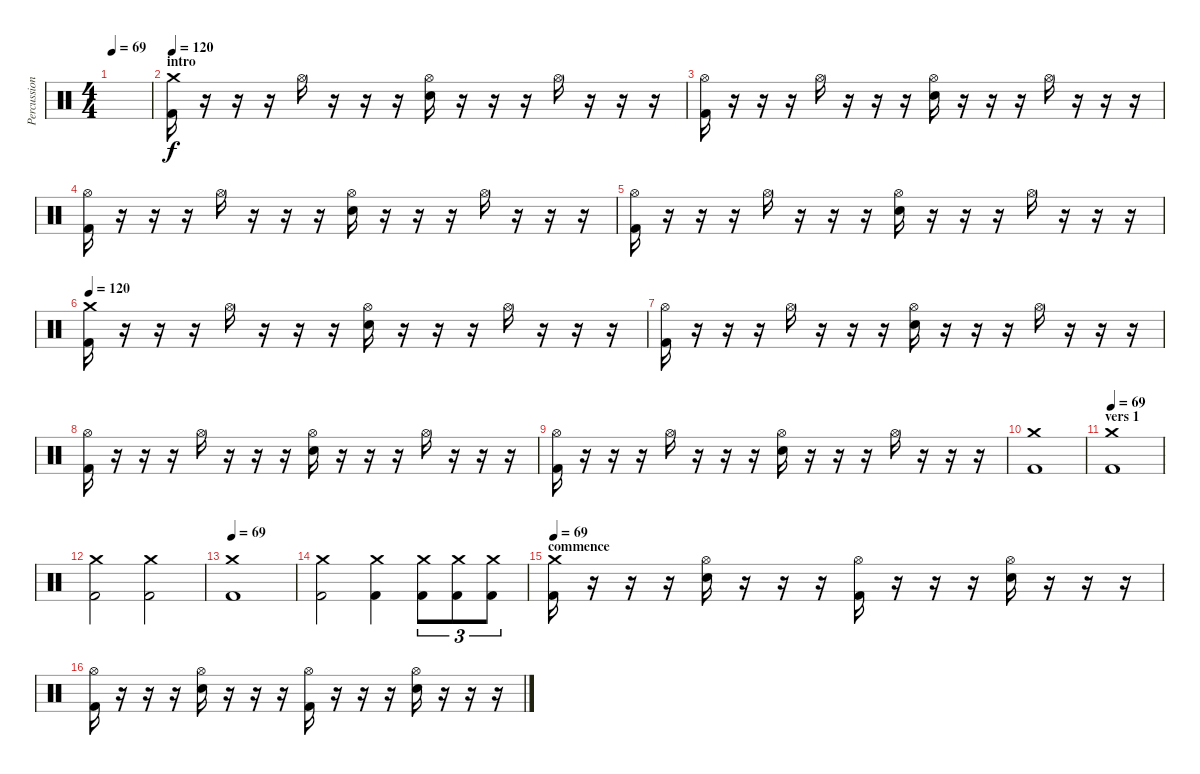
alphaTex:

\track ("Percussions" "Percussion") {instrument percussion}
\staff {score}
\articulation defaults
\ts (4 4)
\tempo 69
\clef neutral
\ks c
|
\section ("" "intro")
\tempo 120
("Crash medium (hit)" "Kick (hit) 2").16 r.16 r.16 r.16 "Hi-Hat (open)".16 r.16 r.16 r.16 ("Hi-Hat (open)" "Electric Snare (hit)").16 r.16 r.16 r.16 "Hi-Hat (open)".16 r.16 r.16 r.16 |
("Hi-Hat (open)" "Kick (hit) 2").16 r.16 r.16 r.16 "Hi-Hat (open)".16 r.16 r.16 r.16 ("Hi-Hat (open)" "Electric Snare (hit)").16 r.16 r.16 r.16 "Hi-Hat (open)".16 r.16 r.16 r.16 |
("Hi-Hat (open)" "Kick (hit) 2").16 r.16 r.16 r.16 "Hi-Hat (open)".16 r.16 r.16 r.16 ("Hi-Hat (open)" "Electric Snare (hit)").16 r.16 r.16 r.16 "Hi-Hat (open)".16 r.16 r.16 r.16 |
("Hi-Hat (open)" "Kick (hit) 2").16 r.16 r.16 r.16 "Hi-Hat (open)".16 r.16 r.16 r.16 ("Hi-Hat (open)" "Electric Snare (hit)").16 r.16 r.16 r.16 "Hi-Hat (open)".16 r.16 r.16 r.16 |
\tempo 120
("Crash medium (hit)" "Kick (hit) 2").16 r.16 r.16 r.16 "Hi-Hat (open)".16 r.16 r.16 r.16 ("Hi-Hat (open)" "Electric Snare (hit)").16 r.16 r.16 r.16 "Hi-Hat (open)".16 r.16 r.16 r.16 |
("Hi-Hat (open)" "Kick (hit) 2").16 r.16 r.16 r.16 "Hi-Hat (open)".16 r.16 r.16 r.16 ("Hi-Hat (open)" "Electric Snare (hit)").16 r.16 r.16 r.16 "Hi-Hat (open)".16 r.16 r.16 r.16 |
("Hi-Hat (open)" "Kick (hit) 2").16 r.16 r.16 r.16 "Hi-Hat (open)".16 r.16 r.16 r.16 ("Hi-Hat (open)" "Electric Snare (hit)").16 r.16 r.16 r.16 "Hi-Hat (open)".16 r.16 r.16 r.16 |
("Hi-Hat (open)" "Kick (hit) 2").16 r.16 r.16 r.16 "Hi-Hat (open)".16 r.16 r.16 r.16 ("Hi-Hat (open)" "Electric Snare (hit)").16 r.16 r.16 r.16 "Hi-Hat (open)".16 r.16 r.16 r.16 |
("Crash medium (hit)" "Kick (hit) 2").1 |
\section ("" "vers 1")
\tempo 69
("Crash medium (hit)" "Kick (hit) 2").1 |
("Crash medium (hit)" "Kick (hit) 2").2 ("Crash medium (hit)" "Kick (hit) 2").2 |
\tempo 69
("Crash medium (hit)" "Kick (hit) 2").1 |
("Crash medium (hit)" "Kick (hit) 2").2 ("Crash medium (hit)" "Kick (hit) 2").4 ("Crash medium (hit)" "Kick (hit) 2").8{tu (3 2)} ("Crash medium (hit)" "Kick (hit) 2").8{tu (3 2)} ("Crash medium (hit)" "Kick (hit) 2").8{tu (3 2)} |
\section ("" "commence")
\tempo 69
("Crash medium (hit)" "Kick (hit) 2").16 r.16 r.16 r.16 ("Hi-Hat (open)" "Electric Snare (hit)").16 r.16 r.16 r.16 ("Hi-Hat (open)" "Kick (hit) 2").16 r.16 r.16 r.16 ("Hi-Hat (open)" "Electric Snare (hit)").16 r.16 r.16 r.16 |
("Hi-Hat (open)" "Kick (hit) 2").16 r.16 r.16 r.16 ("Hi-Hat (open)" "Electric Snare (hit)").16 r.16 r.16 r.16 ("Hi-Hat (open)" "Kick (hit) 2").16 r.16 r.16 r.16 ("Hi-Hat (open)" "Electric Snare (hit)").16 r.16 r.16 r.16
